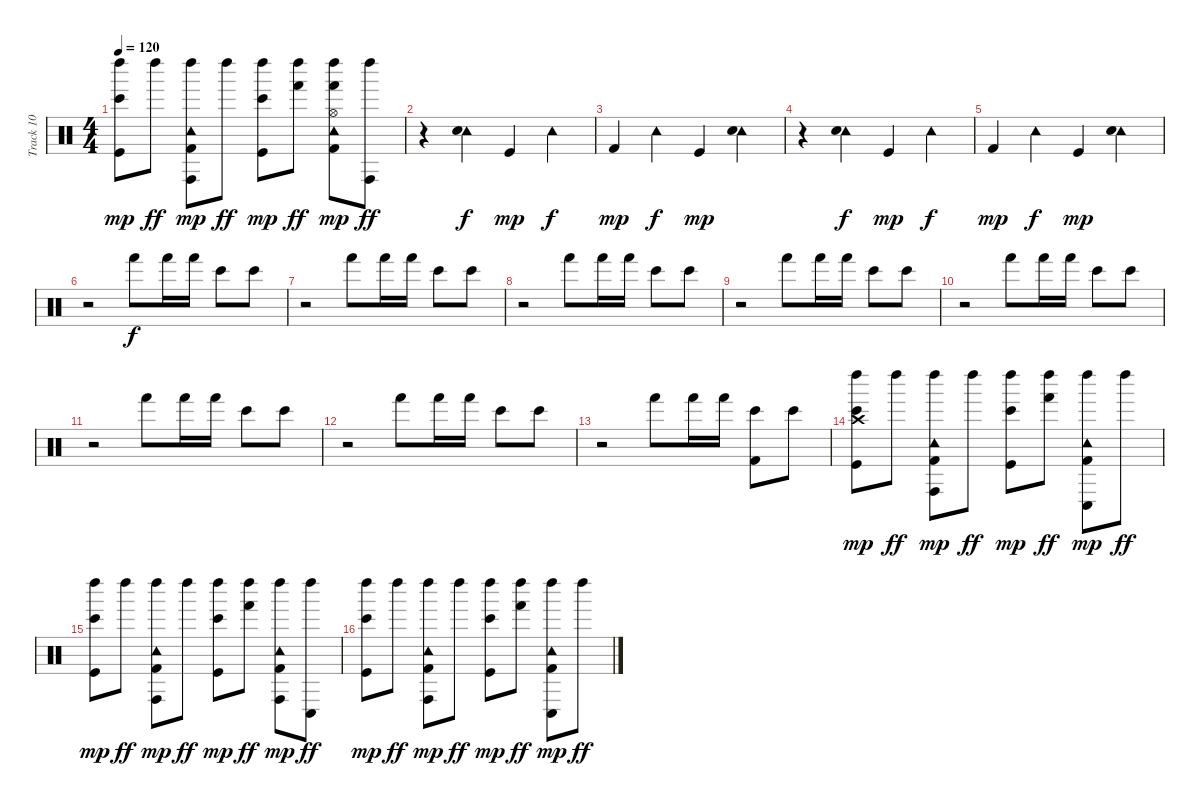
\track ("Track 10" "Track 10") {instrument percussion}
\staff {score}
\articulation defaults
\ts (4 4)
\tempo 120
\clef neutral
\ks c
("Bongo High (hit)" "Left Maraca (hit)" "Kick (hit)").8{dy mp} "Left Maraca (hit)".8{dy ff} ("Conga high (hit)" "Tambourine (hit)" "Left Maraca (hit)" "Kick (hit) 2").8{dy mp} "Left Maraca (hit)".8{dy ff} ("Bongo High (hit)" "Left Maraca (hit)" "Kick (hit)").8{dy mp} ("Hand (hit)" "Left Maraca (hit)").8{dy ff} ("Hand (hit)" "Hi-Hat (open)" "Tambourine (hit)" "Left Maraca (hit)" "Kick (hit) 2").8{dy mp} ("Conga high (hit)" "Left Maraca (hit)").8{dy ff} |
r.4 ("Tambourine (hit)" "Electric Snare (hit)").4{dy f} "Kick (hit)".4{dy mp} "Tambourine (hit)".4{dy f} |
"Kick (hit) 2".4{dy mp} "Tambourine (hit)".4{dy f} "Kick (hit)".4{dy mp} ("Tambourine (hit)" "Electric Snare (hit)").4 |
r.4 ("Tambourine (hit)" "Electric Snare (hit)").4{dy f} "Kick (hit)".4{dy mp} "Tambourine (hit)".4{dy f} |
"Kick (hit) 2".4{dy mp} "Tambourine (hit)".4{dy f} "Kick (hit)".4{dy mp} ("Tambourine (hit)" "Electric Snare (hit)").4 |
r.2 "Hand (hit)".8{dy f} "Hand (hit)".16 "Hand (hit)".16 "Bongo High (hit)".8 "Bongo High (hit)".8 |
r.2 "Hand (hit)".8 "Hand (hit)".16 "Hand (hit)".16 "Bongo High (hit)".8 "Bongo High (hit)".8 |
r.2 "Hand (hit)".8 "Hand (hit)".16 "Hand (hit)".16 "Bongo High (hit)".8 "Bongo High (hit)".8 |
r.2 "Hand (hit)".8 "Hand (hit)".16 "Hand (hit)".16 "Bongo High (hit)".8 "Bongo High (hit)".8 |
r.2 "Hand (hit)".8 "Hand (hit)".16 "Hand (hit)".16 "Bongo High (hit)".8 "Bongo High (hit)".8 |
r.2 "Hand (hit)".8 "Hand (hit)".16 "Hand (hit)".16 "Bongo High (hit)".8 "Bongo High (hit)".8 |
r.2 "Hand (hit)".8 "Hand (hit)".16 "Hand (hit)".16 "Bongo High (hit)".8 "Bongo High (hit)".8 |
r.2 "Hand (hit)".8 "Hand (hit)".16 "Hand (hit)".16 ("Kick (hit) 2" "Bongo High (hit)").8 "Bongo High (hit)".8 |
("Crash high (hit)" "Bongo High (hit)" "Left Maraca (hit)" "Kick (hit)").8{dy mp} "Left Maraca (hit)".8{dy ff} ("Conga high (hit)" "Tambourine (hit)" "Left Maraca (hit)" "Kick (hit) 2").8{dy mp} "Left Maraca (hit)".8{dy ff} ("Bongo High (hit)" "Left Maraca (hit)" "Kick (hit)").8{dy mp} ("Hand (hit)" "Left Maraca (hit)").8{dy ff} ("Conga low (hit)" "Tambourine (hit)" "Left Maraca (hit)" "Kick (hit) 2").8{dy mp} "Left Maraca (hit)".8{dy ff} |
("Bongo High (hit)" "Left Maraca (hit)" "Kick (hit)").8{dy mp} "Left Maraca (hit)".8{dy ff} ("Conga high (hit)" "Tambourine (hit)" "Left Maraca (hit)" "Kick (hit) 2").8{dy mp} "Left Maraca (hit)".8{dy ff} ("Bongo High (hit)" "Left Maraca (hit)" "Kick (hit)").8{dy mp} ("Hand (hit)" "Left Maraca (hit)").8{dy ff} ("Conga high (hit)" "Tambourine (hit)" "Left Maraca (hit)" "Kick (hit) 2").8{dy mp} ("Conga low (hit)" "Left Maraca (hit)").8{dy ff} |
("Bongo High (hit)" "Left Maraca (hit)" "Kick (hit)").8{dy mp} "Left Maraca (hit)".8{dy ff} ("Conga high (hit)" "Tambourine (hit)" "Left Maraca (hit)" "Kick (hit) 2").8{dy mp} "Left Maraca (hit)".8{dy ff} ("Bongo High (hit)" "Left Maraca (hit)" "Kick (hit)").8{dy mp} ("Hand (hit)" "Left Maraca (hit)").8{dy ff} ("Conga low (hit)" "Tambourine (hit)" "Left Maraca (hit)" "Kick (hit) 2").8{dy mp} "Left Maraca (hit)".8{dy ff}
